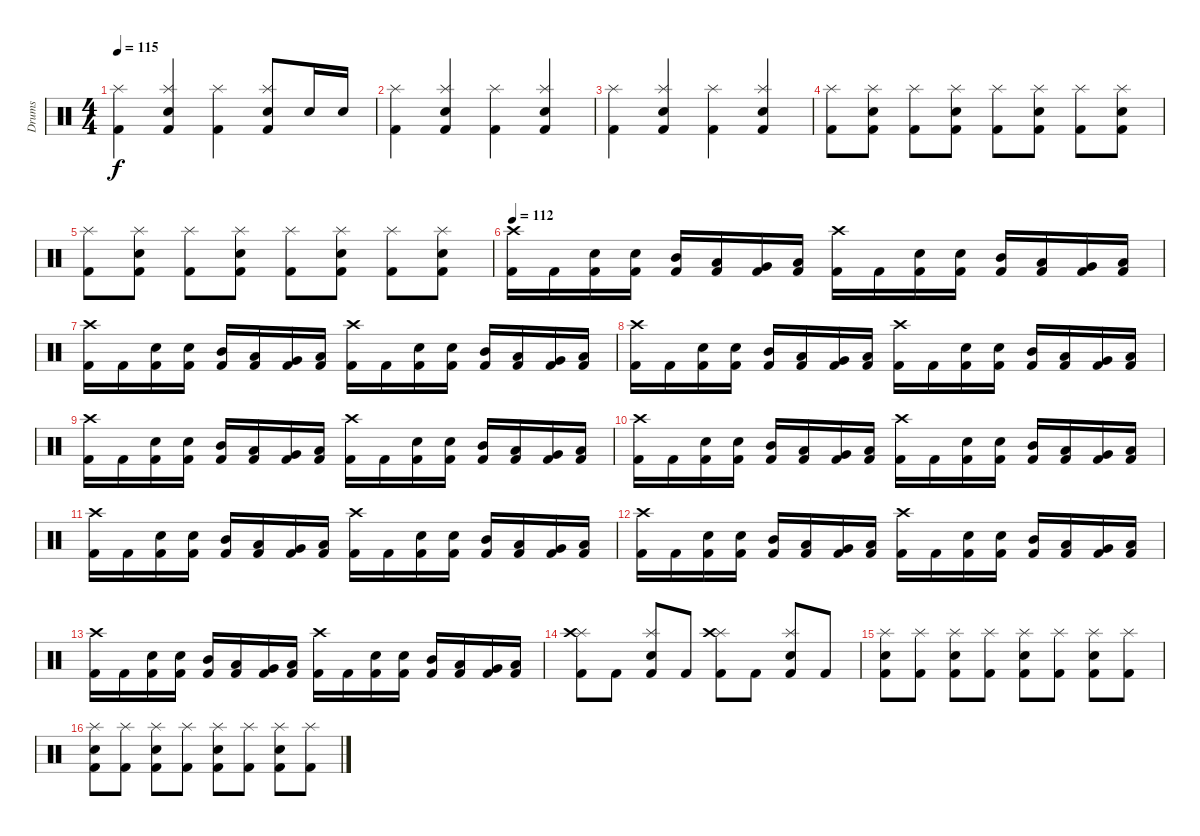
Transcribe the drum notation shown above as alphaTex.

\track ("Drums" "Drums") {instrument percussion}
\staff {score}
\articulation defaults
\ts (4 4)
\tempo 115
\clef neutral
\ks c
("Kick (hit) 2" "Splash (hit)").4{dy f} ("Kick (hit) 2" "Splash (hit)" "Electric Snare (hit)").4 ("Kick (hit) 2" "Splash (hit)").4 ("Kick (hit) 2" "Splash (hit)" "Electric Snare (hit)").8 "Electric Snare (hit)".16 "Electric Snare (hit)".16 |
("Kick (hit) 2" "Splash (hit)").4 ("Kick (hit) 2" "Splash (hit)" "Electric Snare (hit)").4 ("Kick (hit) 2" "Splash (hit)").4 ("Kick (hit) 2" "Splash (hit)" "Electric Snare (hit)").4 |
("Kick (hit) 2" "Splash (hit)").4 ("Kick (hit) 2" "Splash (hit)" "Electric Snare (hit)").4 ("Kick (hit) 2" "Splash (hit)").4 ("Kick (hit) 2" "Splash (hit)" "Electric Snare (hit)").4 |
("Kick (hit) 2" "Splash (hit)").8 ("Kick (hit) 2" "Splash (hit)" "Electric Snare (hit)").8 ("Kick (hit) 2" "Splash (hit)").8 ("Kick (hit) 2" "Splash (hit)" "Electric Snare (hit)").8 ("Kick (hit) 2" "Splash (hit)").8 ("Kick (hit) 2" "Splash (hit)" "Electric Snare (hit)").8 ("Kick (hit) 2" "Splash (hit)").8 ("Kick (hit) 2" "Splash (hit)" "Electric Snare (hit)").8 |
("Kick (hit) 2" "Splash (hit)").8 ("Kick (hit) 2" "Splash (hit)" "Electric Snare (hit)").8 ("Kick (hit) 2" "Splash (hit)").8 ("Kick (hit) 2" "Splash (hit)" "Electric Snare (hit)").8 ("Kick (hit) 2" "Splash (hit)").8 ("Kick (hit) 2" "Splash (hit)" "Electric Snare (hit)").8 ("Kick (hit) 2" "Splash (hit)").8 ("Kick (hit) 2" "Splash (hit)" "Electric Snare (hit)").8 |
\tempo 112
("Kick (hit) 2" "Crash high (hit)").16 "Kick (hit) 2".16 ("Kick (hit) 2" "Electric Snare (hit)").16 ("Kick (hit) 2" "Electric Snare (hit)").16 ("Kick (hit) 2" "Mid Tom (hit)").16 ("Kick (hit) 2" "Low Tom (hit)").16 ("Kick (hit) 2" "Very Low Tom (hit)").16 ("Kick (hit) 2" "Low Floor Tom (hit)").16 ("Kick (hit) 2" "Crash high (hit)").16 "Kick (hit) 2".16 ("Kick (hit) 2" "Electric Snare (hit)").16 ("Kick (hit) 2" "Electric Snare (hit)").16 ("Kick (hit) 2" "Mid Tom (hit)").16 ("Kick (hit) 2" "Low Tom (hit)").16 ("Kick (hit) 2" "Very Low Tom (hit)").16 ("Kick (hit) 2" "Low Floor Tom (hit)").16 |
("Kick (hit) 2" "Crash high (hit)").16 "Kick (hit) 2".16 ("Kick (hit) 2" "Electric Snare (hit)").16 ("Kick (hit) 2" "Electric Snare (hit)").16 ("Kick (hit) 2" "Mid Tom (hit)").16 ("Kick (hit) 2" "Low Tom (hit)").16 ("Kick (hit) 2" "Very Low Tom (hit)").16 ("Kick (hit) 2" "Low Floor Tom (hit)").16 ("Kick (hit) 2" "Crash high (hit)").16 "Kick (hit) 2".16 ("Kick (hit) 2" "Electric Snare (hit)").16 ("Kick (hit) 2" "Electric Snare (hit)").16 ("Kick (hit) 2" "Mid Tom (hit)").16 ("Kick (hit) 2" "Low Tom (hit)").16 ("Kick (hit) 2" "Very Low Tom (hit)").16 ("Kick (hit) 2" "Low Floor Tom (hit)").16 |
("Kick (hit) 2" "Crash high (hit)").16 "Kick (hit) 2".16 ("Kick (hit) 2" "Electric Snare (hit)").16 ("Kick (hit) 2" "Electric Snare (hit)").16 ("Kick (hit) 2" "Mid Tom (hit)").16 ("Kick (hit) 2" "Low Tom (hit)").16 ("Kick (hit) 2" "Very Low Tom (hit)").16 ("Kick (hit) 2" "Low Floor Tom (hit)").16 ("Kick (hit) 2" "Crash high (hit)").16 "Kick (hit) 2".16 ("Kick (hit) 2" "Electric Snare (hit)").16 ("Kick (hit) 2" "Electric Snare (hit)").16 ("Kick (hit) 2" "Mid Tom (hit)").16 ("Kick (hit) 2" "Low Tom (hit)").16 ("Kick (hit) 2" "Very Low Tom (hit)").16 ("Kick (hit) 2" "Low Floor Tom (hit)").16 |
("Kick (hit) 2" "Crash high (hit)").16 "Kick (hit) 2".16 ("Kick (hit) 2" "Electric Snare (hit)").16 ("Kick (hit) 2" "Electric Snare (hit)").16 ("Kick (hit) 2" "Mid Tom (hit)").16 ("Kick (hit) 2" "Low Tom (hit)").16 ("Kick (hit) 2" "Very Low Tom (hit)").16 ("Kick (hit) 2" "Low Floor Tom (hit)").16 ("Kick (hit) 2" "Crash high (hit)").16 "Kick (hit) 2".16 ("Kick (hit) 2" "Electric Snare (hit)").16 ("Kick (hit) 2" "Electric Snare (hit)").16 ("Kick (hit) 2" "Mid Tom (hit)").16 ("Kick (hit) 2" "Low Tom (hit)").16 ("Kick (hit) 2" "Very Low Tom (hit)").16 ("Kick (hit) 2" "Low Floor Tom (hit)").16 |
("Kick (hit) 2" "Crash high (hit)").16 "Kick (hit) 2".16 ("Kick (hit) 2" "Electric Snare (hit)").16 ("Kick (hit) 2" "Electric Snare (hit)").16 ("Kick (hit) 2" "Mid Tom (hit)").16 ("Kick (hit) 2" "Low Tom (hit)").16 ("Kick (hit) 2" "Very Low Tom (hit)").16 ("Kick (hit) 2" "Low Floor Tom (hit)").16 ("Kick (hit) 2" "Crash high (hit)").16 "Kick (hit) 2".16 ("Kick (hit) 2" "Electric Snare (hit)").16 ("Kick (hit) 2" "Electric Snare (hit)").16 ("Kick (hit) 2" "Mid Tom (hit)").16 ("Kick (hit) 2" "Low Tom (hit)").16 ("Kick (hit) 2" "Very Low Tom (hit)").16 ("Kick (hit) 2" "Low Floor Tom (hit)").16 |
("Kick (hit) 2" "Crash high (hit)").16 "Kick (hit) 2".16 ("Kick (hit) 2" "Electric Snare (hit)").16 ("Kick (hit) 2" "Electric Snare (hit)").16 ("Kick (hit) 2" "Mid Tom (hit)").16 ("Kick (hit) 2" "Low Tom (hit)").16 ("Kick (hit) 2" "Very Low Tom (hit)").16 ("Kick (hit) 2" "Low Floor Tom (hit)").16 ("Kick (hit) 2" "Crash high (hit)").16 "Kick (hit) 2".16 ("Kick (hit) 2" "Electric Snare (hit)").16 ("Kick (hit) 2" "Electric Snare (hit)").16 ("Kick (hit) 2" "Mid Tom (hit)").16 ("Kick (hit) 2" "Low Tom (hit)").16 ("Kick (hit) 2" "Very Low Tom (hit)").16 ("Kick (hit) 2" "Low Floor Tom (hit)").16 |
("Kick (hit) 2" "Crash high (hit)").16 "Kick (hit) 2".16 ("Kick (hit) 2" "Electric Snare (hit)").16 ("Kick (hit) 2" "Electric Snare (hit)").16 ("Kick (hit) 2" "Mid Tom (hit)").16 ("Kick (hit) 2" "Low Tom (hit)").16 ("Kick (hit) 2" "Very Low Tom (hit)").16 ("Kick (hit) 2" "Low Floor Tom (hit)").16 ("Kick (hit) 2" "Crash high (hit)").16 "Kick (hit) 2".16 ("Kick (hit) 2" "Electric Snare (hit)").16 ("Kick (hit) 2" "Electric Snare (hit)").16 ("Kick (hit) 2" "Mid Tom (hit)").16 ("Kick (hit) 2" "Low Tom (hit)").16 ("Kick (hit) 2" "Very Low Tom (hit)").16 ("Kick (hit) 2" "Low Floor Tom (hit)").16 |
("Kick (hit) 2" "Crash high (hit)").16 "Kick (hit) 2".16 ("Kick (hit) 2" "Electric Snare (hit)").16 ("Kick (hit) 2" "Electric Snare (hit)").16 ("Kick (hit) 2" "Mid Tom (hit)").16 ("Kick (hit) 2" "Low Tom (hit)").16 ("Kick (hit) 2" "Very Low Tom (hit)").16 ("Kick (hit) 2" "Low Floor Tom (hit)").16 ("Kick (hit) 2" "Crash high (hit)").16 "Kick (hit) 2".16 ("Kick (hit) 2" "Electric Snare (hit)").16 ("Kick (hit) 2" "Electric Snare (hit)").16 ("Kick (hit) 2" "Mid Tom (hit)").16 ("Kick (hit) 2" "Low Tom (hit)").16 ("Kick (hit) 2" "Very Low Tom (hit)").16 ("Kick (hit) 2" "Low Floor Tom (hit)").16 |
("Kick (hit) 2" "Splash (hit)" "Crash high (hit)").8 "Kick (hit) 2".8 ("Kick (hit) 2" "Splash (hit)" "Electric Snare (hit)").8 "Kick (hit) 2".8 ("Kick (hit) 2" "Splash (hit)" "Crash high (hit)").8 "Kick (hit) 2".8 ("Kick (hit) 2" "Splash (hit)" "Electric Snare (hit)").8 "Kick (hit) 2".8 |
("Kick (hit) 2" "Splash (hit)" "Electric Snare (hit)").8 ("Kick (hit) 2" "Splash (hit)").8 ("Kick (hit) 2" "Splash (hit)" "Electric Snare (hit)").8 ("Kick (hit) 2" "Splash (hit)").8 ("Kick (hit) 2" "Splash (hit)" "Electric Snare (hit)").8 ("Kick (hit) 2" "Splash (hit)").8 ("Kick (hit) 2" "Splash (hit)" "Electric Snare (hit)").8 ("Kick (hit) 2" "Splash (hit)").8 |
("Kick (hit) 2" "Splash (hit)" "Electric Snare (hit)").8 ("Kick (hit) 2" "Splash (hit)").8 ("Kick (hit) 2" "Splash (hit)" "Electric Snare (hit)").8 ("Kick (hit) 2" "Splash (hit)").8 ("Kick (hit) 2" "Splash (hit)" "Electric Snare (hit)").8 ("Kick (hit) 2" "Splash (hit)").8 ("Kick (hit) 2" "Splash (hit)" "Electric Snare (hit)").8 ("Kick (hit) 2" "Splash (hit)").8
